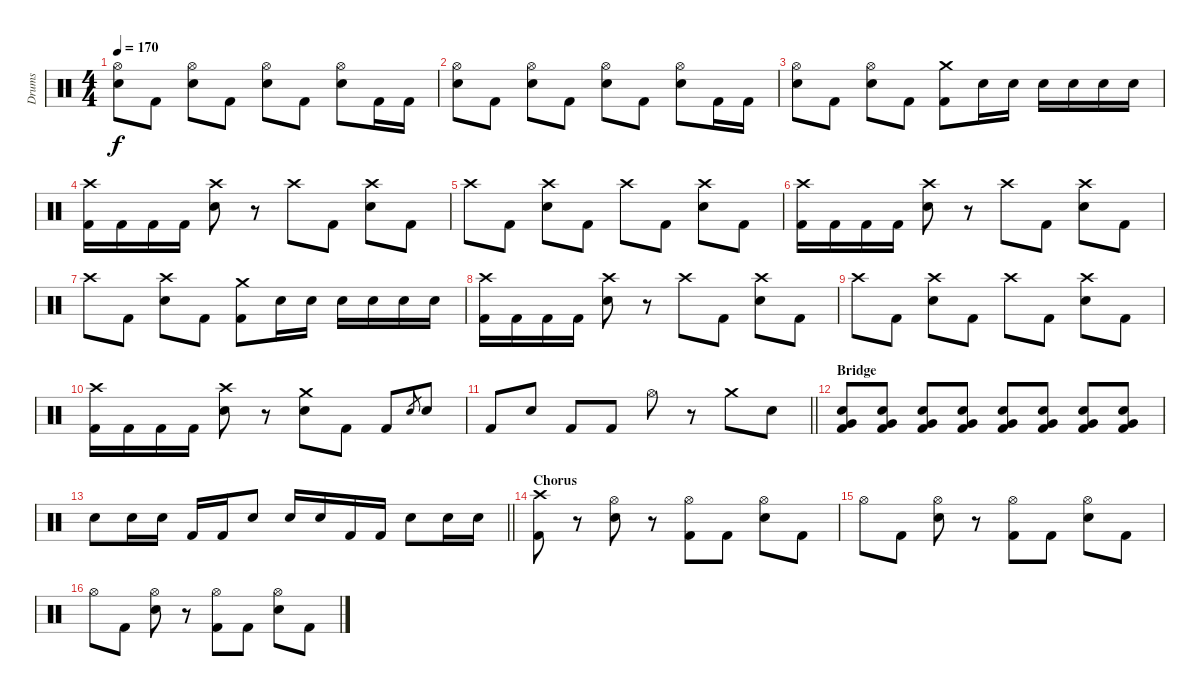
\track ("Drums" "Drums") {instrument percussion}
\staff {score}
\articulation defaults
\ts (4 4)
\tempo 170
\clef neutral
\ks c
("Hi-Hat (open)" "Electric Snare (hit)").8{dy f} "Kick (hit) 2".8 ("Hi-Hat (open)" "Electric Snare (hit)").8 "Kick (hit) 2".8 ("Hi-Hat (open)" "Electric Snare (hit)").8 "Kick (hit) 2".8 ("Hi-Hat (open)" "Electric Snare (hit)").8 "Kick (hit) 2".16 "Kick (hit) 2".16 |
("Hi-Hat (open)" "Electric Snare (hit)").8 "Kick (hit) 2".8 ("Hi-Hat (open)" "Electric Snare (hit)").8 "Kick (hit) 2".8 ("Hi-Hat (open)" "Electric Snare (hit)").8 "Kick (hit) 2".8 ("Hi-Hat (open)" "Electric Snare (hit)").8 "Kick (hit) 2".16 "Kick (hit) 2".16 |
("Hi-Hat (open)" "Electric Snare (hit)").8 "Kick (hit) 2".8 ("Hi-Hat (open)" "Electric Snare (hit)").8 "Kick (hit) 2".8 ("Crash medium (hit)" "Kick (hit) 2").8 "Electric Snare (hit)".16 "Electric Snare (hit)".16 "Electric Snare (hit)".16 "Electric Snare (hit)".16 "Electric Snare (hit)".16 "Electric Snare (hit)".16 |
("Crash high (hit)" "Kick (hit) 2").16 "Kick (hit) 2".16 "Kick (hit) 2".16 "Kick (hit) 2".16 ("Crash high (hit)" "Electric Snare (hit)").8 r.8 "Crash high (hit)".8 "Kick (hit) 2".8 ("Crash high (hit)" "Electric Snare (hit)").8 "Kick (hit) 2".8 |
"Crash high (hit)".8 "Kick (hit) 2".8 ("Crash high (hit)" "Electric Snare (hit)").8 "Kick (hit) 2".8 "Crash high (hit)".8 "Kick (hit) 2".8 ("Crash high (hit)" "Electric Snare (hit)").8 "Kick (hit) 2".8 |
("Crash high (hit)" "Kick (hit) 2").16 "Kick (hit) 2".16 "Kick (hit) 2".16 "Kick (hit) 2".16 ("Crash high (hit)" "Electric Snare (hit)").8 r.8 "Crash high (hit)".8 "Kick (hit) 2".8 ("Crash high (hit)" "Electric Snare (hit)").8 "Kick (hit) 2".8 |
"Crash high (hit)".8 "Kick (hit) 2".8 ("Crash high (hit)" "Electric Snare (hit)").8 "Kick (hit) 2".8 ("Crash medium (hit)" "Kick (hit) 2").8 "Electric Snare (hit)".16 "Electric Snare (hit)".16 "Electric Snare (hit)".16 "Electric Snare (hit)".16 "Electric Snare (hit)".16 "Electric Snare (hit)".16 |
("Crash high (hit)" "Kick (hit) 2").16 "Kick (hit) 2".16 "Kick (hit) 2".16 "Kick (hit) 2".16 ("Crash high (hit)" "Electric Snare (hit)").8 r.8 "Crash high (hit)".8 "Kick (hit) 2".8 ("Crash high (hit)" "Electric Snare (hit)").8 "Kick (hit) 2".8 |
"Crash high (hit)".8 "Kick (hit) 2".8 ("Crash high (hit)" "Electric Snare (hit)").8 "Kick (hit) 2".8 "Crash high (hit)".8 "Kick (hit) 2".8 ("Crash high (hit)" "Electric Snare (hit)").8 "Kick (hit) 2".8 |
("Crash high (hit)" "Kick (hit) 2").16 "Kick (hit) 2".16 "Kick (hit) 2".16 "Kick (hit) 2".16 ("Crash high (hit)" "Electric Snare (hit)").8 r.8 ("Crash medium (hit)" "Electric Snare (hit)").8 "Kick (hit) 2".8 "Kick (hit) 2".8 "Electric Snare (hit)".8{gr} "Electric Snare (hit)".8 |
\barLineRight lightlight "Kick (hit) 2".8 "Electric Snare (hit)".8 "Kick (hit) 2".8 "Kick (hit) 2".8 "Hi-Hat (open)".8
r.8 "Crash medium (hit)".8 "Electric Snare (hit)".8 |
\section ("" "Bridge")
("Very Low Tom (hit)" "Electric Snare (hit)" "Kick (hit) 2").8 ("Very Low Tom (hit)" "Electric Snare (hit)" "Kick (hit) 2").8 ("Very Low Tom (hit)" "Electric Snare (hit)" "Kick (hit) 2").8 ("Very Low Tom (hit)" "Electric Snare (hit)" "Kick (hit) 2").8 ("Very Low Tom (hit)" "Electric Snare (hit)" "Kick (hit) 2").8 ("Very Low Tom (hit)" "Electric Snare (hit)" "Kick (hit) 2").8 ("Very Low Tom (hit)" "Electric Snare (hit)" "Kick (hit) 2").8 ("Very Low Tom (hit)" "Electric Snare (hit)" "Kick (hit) 2").8 |
\barLineRight lightlight "Electric Snare (hit)".8 "Electric Snare (hit)".16 "Electric Snare (hit)".16 "Kick (hit) 2".16 "Kick (hit) 2".16 "Electric Snare (hit)".8 "Electric Snare (hit)".16 "Electric Snare (hit)".16 "Kick (hit) 2".16 "Kick (hit) 2".16 "Electric Snare (hit)".8 "Electric Snare (hit)".16 "Electric Snare (hit)".16
|
\section ("" "Chorus")
("Crash high (hit)" "Kick (hit) 2").8 r.8 ("Hi-Hat (open)" "Electric Snare (hit)").8 r.8 ("Hi-Hat (open)" "Kick (hit) 2").8 "Kick (hit) 2".8 ("Hi-Hat (open)" "Electric Snare (hit)").8 "Kick (hit) 2".8 |
"Hi-Hat (open)".8 "Kick (hit) 2".8 ("Hi-Hat (open)" "Electric Snare (hit)").8 r.8 ("Hi-Hat (open)" "Kick (hit) 2").8 "Kick (hit) 2".8 ("Hi-Hat (open)" "Electric Snare (hit)").8 "Kick (hit) 2".8 |
"Hi-Hat (open)".8 "Kick (hit) 2".8 ("Hi-Hat (open)" "Electric Snare (hit)").8 r.8 ("Hi-Hat (open)" "Kick (hit) 2").8 "Kick (hit) 2".8 ("Hi-Hat (open)" "Electric Snare (hit)").8 "Kick (hit) 2".8
